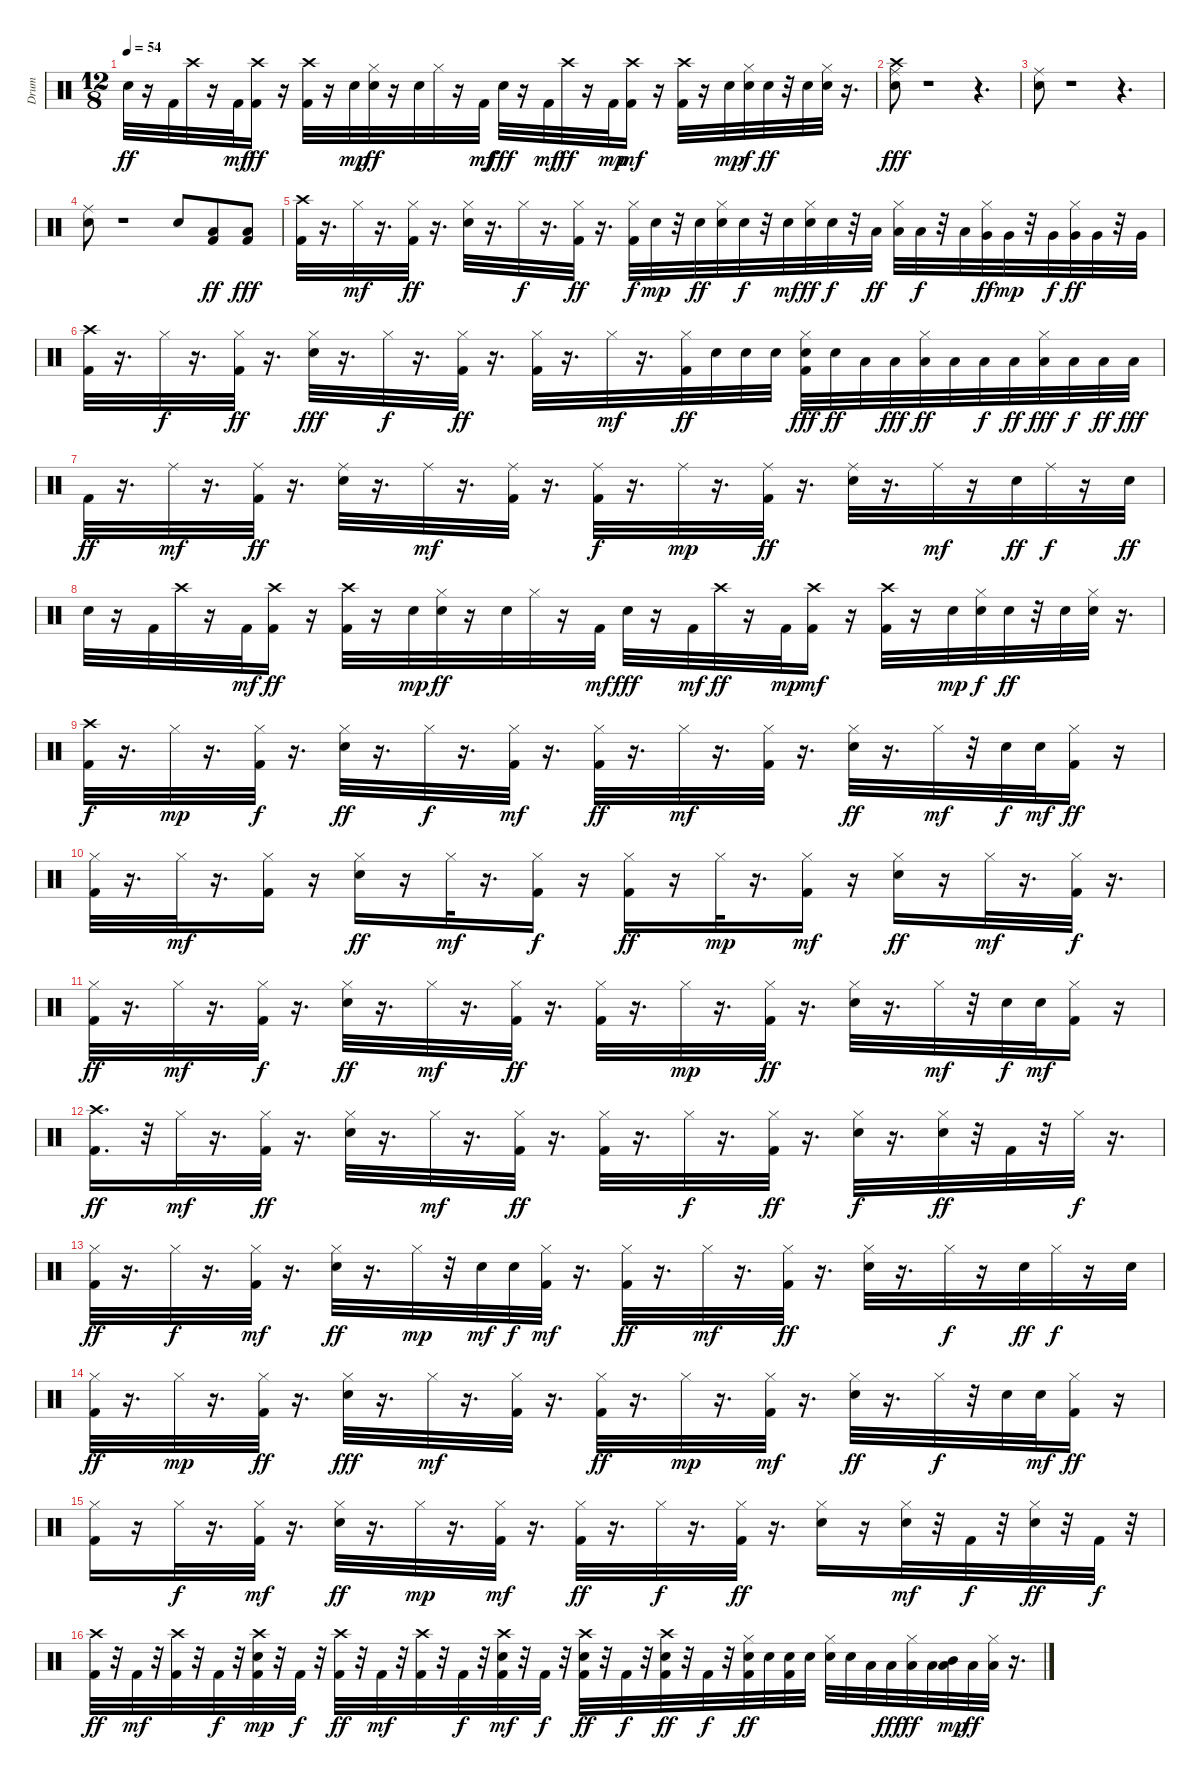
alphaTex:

\track ("Drum" "Drum") {instrument percussion}
\staff {score}
\articulation defaults
\ts (12 8)
\tempo 54
\clef neutral
\ks c "Electric Snare (hit)".32{dy ff}
r.16 "Kick (hit) 2".32 "Crash high (hit)".32 r.16 "Kick (hit) 2".32{dy mf} ("Kick (hit) 2" "Crash high (hit)").16{dy ff} r.16 ("Kick (hit) 2" "Crash high (hit)").32 r.16 "Electric Snare (hit)".32{dy mp} ("Electric Snare (hit)" "Hi-Hat (closed)").32{dy ff} r.16 "Electric Snare (hit)".32 "Hi-Hat (closed)".32 r.16 "Kick (hit) 2".32{dy mf} "Electric Snare (hit)".32{dy fff} r.16 "Kick (hit) 2".32{dy mf} "Crash high (hit)".32{dy ff} r.16 "Kick (hit) 2".32{dy mp} ("Kick (hit) 2" "Crash high (hit)").16{dy mf} r.16 ("Kick (hit) 2" "Crash high (hit)").32 r.16 "Electric Snare (hit)".32{dy mp} ("Electric Snare (hit)" "Hi-Hat (closed)").32{dy f} "Electric Snare (hit)".32{dy ff} r.32 "Electric Snare (hit)".32 ("Electric Snare (hit)" "Hi-Hat (closed)").32 r.16{d} |
("Crash high (hit)" "Electric Snare (hit)" "Ride (middle)").8{dy fff} r.1 r.4{d} |
("Electric Snare (hit)" "Ride (middle)").8 r.1 r.4{d} |
("Electric Snare (hit)" "Ride (middle)").8 r.1 "Electric Snare (hit)".8 ("Low Floor Tom (hit)" "Kick (hit) 2").8{dy ff} ("Low Floor Tom (hit)" "Kick (hit) 2").8{dy fff} |
("Kick (hit) 2" "Crash high (hit)").32 r.16{d} "Hi-Hat (closed)".32{dy mf} r.16{d} ("Kick (hit) 2" "Hi-Hat (closed)").32{dy ff} r.16{d} ("Electric Snare (hit)" "Hi-Hat (closed)").32 r.16{d} "Hi-Hat (closed)".32{dy f} r.16{d} ("Hi-Hat (closed)" "Kick (hit) 2").32{dy ff} r.16{d} ("Hi-Hat (closed)" "Kick (hit) 2").32{dy f} "Electric Snare (hit)".32{dy mp} r.32 "Electric Snare (hit)".32{dy ff} ("Hi-Hat (closed)" "Electric Snare (hit)").32 "Electric Snare (hit)".32{dy f} r.32 "Electric Snare (hit)".32{dy mf} ("Hi-Hat (closed)" "Electric Snare (hit)").32{dy ff} "Electric Snare (hit)".32{dy f} r.32 "Low Tom (hit)".32{dy ff} ("Low Tom (hit)" "Hi-Hat (closed)").32 "Low Tom (hit)".32{dy f} r.32 "Low Tom (hit)".32 ("Very Low Tom (hit)" "Hi-Hat (closed)").32{dy ff} "Very Low Tom (hit)".32{dy mp} r.32 "Very Low Tom (hit)".32{dy f} ("Very Low Tom (hit)" "Hi-Hat (closed)").32{dy ff} "Very Low Tom (hit)".32 r.32 "Very Low Tom (hit)".32 |
("Crash high (hit)" "Kick (hit) 2").32 r.16{d} "Hi-Hat (closed)".32{dy f} r.16{d} ("Kick (hit) 2" "Hi-Hat (closed)").32{dy ff} r.16{d} ("Hi-Hat (closed)" "Electric Snare (hit)").32{dy fff} r.16{d} "Hi-Hat (closed)".32{dy f} r.16{d} ("Kick (hit) 2" "Hi-Hat (closed)").32{dy ff} r.16{d} ("Kick (hit) 2" "Hi-Hat (closed)").32 r.16{d} "Hi-Hat (closed)".32{dy mf} r.16{d} ("Kick (hit) 2" "Hi-Hat (closed)").32{dy ff} "Electric Snare (hit)".32 "Electric Snare (hit)".32 "Electric Snare (hit)".32 ("Electric Snare (hit)" "Hi-Hat (closed)" "Kick (hit) 2").32{dy fff} "Electric Snare (hit)".32{dy ff} "Low Tom (hit)".32 "Low Tom (hit)".32{dy fff} ("Low Tom (hit)" "Hi-Hat (closed)").32{dy ff} "Low Tom (hit)".32 "Low Tom (hit)".32{dy f} "Low Tom (hit)".32{dy ff} ("Low Tom (hit)" "Hi-Hat (closed)").32{dy fff} "Low Tom (hit)".32{dy f} "Low Tom (hit)".32{dy ff} "Low Tom (hit)".32{dy fff} |
"Kick (hit) 2".32{dy ff} r.16{d} "Ride (middle)".32{dy mf} r.16{d} ("Ride (middle)" "Kick (hit) 2").32{dy ff} r.16{d} ("Ride (middle)" "Electric Snare (hit)").32 r.16{d} "Ride (middle)".32{dy mf} r.16{d} ("Ride (middle)" "Kick (hit) 2").32 r.16{d} ("Ride (middle)" "Kick (hit) 2").32{dy f} r.16{d} "Ride (middle)".32{dy mp} r.16{d} ("Ride (middle)" "Kick (hit) 2").32{dy ff} r.16{d} ("Electric Snare (hit)" "Ride (middle)").32 r.16{d} "Ride (middle)".32{dy mf} r.16 "Electric Snare (hit)".32{dy ff} "Ride (middle)".32{dy f} r.16 "Electric Snare (hit)".32{dy ff} |
"Electric Snare (hit)".32 r.16 "Kick (hit) 2".32 "Crash high (hit)".32 r.16 "Kick (hit) 2".32{dy mf} ("Kick (hit) 2" "Crash high (hit)").16{dy ff} r.16 ("Kick (hit) 2" "Crash high (hit)").32 r.16 "Electric Snare (hit)".32{dy mp} ("Electric Snare (hit)" "Hi-Hat (closed)").32{dy ff} r.16 "Electric Snare (hit)".32 "Hi-Hat (closed)".32 r.16 "Kick (hit) 2".32{dy mf} "Electric Snare (hit)".32{dy fff} r.16 "Kick (hit) 2".32{dy mf} "Crash high (hit)".32{dy ff} r.16 "Kick (hit) 2".32{dy mp} ("Kick (hit) 2" "Crash high (hit)").16{dy mf} r.16 ("Kick (hit) 2" "Crash high (hit)").32 r.16 "Electric Snare (hit)".32{dy mp} ("Electric Snare (hit)" "Hi-Hat (closed)").32{dy f} "Electric Snare (hit)".32{dy ff} r.32 "Electric Snare (hit)".32 ("Electric Snare (hit)" "Hi-Hat (closed)").32 r.16{d} |
("Crash high (hit)" "Kick (hit) 2").32{dy f} r.16{d} "Hi-Hat (closed)".32{dy mp} r.16{d} ("Kick (hit) 2" "Hi-Hat (closed)").32{dy f} r.16{d} ("Electric Snare (hit)" "Hi-Hat (closed)").32{dy ff} r.16{d} "Hi-Hat (closed)".32{dy f} r.16{d} ("Kick (hit) 2" "Hi-Hat (closed)").32{dy mf} r.16{d} ("Kick (hit) 2" "Hi-Hat (closed)").32{dy ff} r.16{d} "Hi-Hat (closed)".32{dy mf} r.16{d} ("Kick (hit) 2" "Hi-Hat (closed)").32 r.16{d} ("Electric Snare (hit)" "Hi-Hat (closed)").32{dy ff} r.16{d} "Hi-Hat (closed)".32{dy mf} r.32 "Electric Snare (hit)".32{dy f} "Electric Snare (hit)".32{dy mf} ("Kick (hit) 2" "Hi-Hat (closed)").16{dy ff} r.16 |
("Kick (hit) 2" "Hi-Hat (closed)").32 r.16{d} "Hi-Hat (closed)".32{dy mf} r.16{d} ("Kick (hit) 2" "Hi-Hat (closed)").16 r.16 ("Electric Snare (hit)" "Hi-Hat (closed)").16{dy ff} r.16 "Hi-Hat (closed)".32{dy mf} r.16{d} ("Kick (hit) 2" "Hi-Hat (closed)").16{dy f} r.16 ("Kick (hit) 2" "Hi-Hat (closed)").16{dy ff} r.16 "Hi-Hat (closed)".32{dy mp} r.16{d} ("Kick (hit) 2" "Hi-Hat (closed)").16{dy mf} r.16 ("Electric Snare (hit)" "Hi-Hat (closed)").16{dy ff} r.16 "Hi-Hat (closed)".32{dy mf} r.16{d} ("Kick (hit) 2" "Hi-Hat (closed)").32{dy f} r.16{d} |
("Kick (hit) 2" "Hi-Hat (closed)").32{dy ff} r.16{d} "Hi-Hat (closed)".32{dy mf} r.16{d} ("Kick (hit) 2" "Hi-Hat (closed)").32{dy f} r.16{d} ("Electric Snare (hit)" "Hi-Hat (closed)").32{dy ff} r.16{d} "Hi-Hat (closed)".32{dy mf} r.16{d} ("Kick (hit) 2" "Hi-Hat (closed)").32{dy ff} r.16{d} ("Kick (hit) 2" "Hi-Hat (closed)").32 r.16{d} "Hi-Hat (closed)".32{dy mp} r.16{d} ("Kick (hit) 2" "Hi-Hat (closed)").32{dy ff} r.16{d} ("Electric Snare (hit)" "Hi-Hat (closed)").32 r.16{d} "Hi-Hat (closed)".32{dy mf} r.32 "Electric Snare (hit)".32{dy f} "Electric Snare (hit)".32{dy mf} ("Kick (hit) 2" "Hi-Hat (closed)").16 r.16 |
("Kick (hit) 2" "Crash high (hit)").16{d dy ff} r.32 "Hi-Hat (closed)".32{dy mf} r.16{d} ("Kick (hit) 2" "Hi-Hat (closed)").32{dy ff} r.16{d} ("Hi-Hat (closed)" "Electric Snare (hit)").32 r.16{d} "Hi-Hat (closed)".32{dy mf} r.16{d} ("Hi-Hat (closed)" "Kick (hit) 2").32{dy ff} r.16{d} ("Kick (hit) 2" "Hi-Hat (closed)").32 r.16{d} "Hi-Hat (closed)".32{dy f} r.16{d} ("Hi-Hat (closed)" "Kick (hit) 2").32{dy ff} r.16{d} ("Hi-Hat (closed)" "Electric Snare (hit)").32{dy f} r.16{d} ("Electric Snare (hit)" "Hi-Hat (closed)").32{dy ff} r.32 "Kick (hit) 2".32 r.32 "Hi-Hat (closed)".32{dy f} r.16{d} |
("Hi-Hat (closed)" "Kick (hit) 2").32{dy ff} r.16{d} "Hi-Hat (closed)".32{dy f} r.16{d} ("Kick (hit) 2" "Hi-Hat (closed)").32{dy mf} r.16{d} ("Electric Snare (hit)" "Hi-Hat (closed)").32{dy ff} r.16{d} "Hi-Hat (closed)".32{dy mp} r.32 "Electric Snare (hit)".32{dy mf} "Electric Snare (hit)".32{dy f} ("Kick (hit) 2" "Hi-Hat (closed)").32{dy mf} r.16{d} ("Kick (hit) 2" "Hi-Hat (closed)").32{dy ff} r.16{d} "Hi-Hat (closed)".32{dy mf} r.16{d} ("Kick (hit) 2" "Hi-Hat (closed)").32{dy ff} r.16{d} ("Electric Snare (hit)" "Hi-Hat (closed)").32 r.16{d} "Hi-Hat (closed)".32{dy f} r.16 "Electric Snare (hit)".32{dy ff} "Hi-Hat (closed)".32{dy f} r.16 "Electric Snare (hit)".32 |
("Kick (hit) 2" "Hi-Hat (closed)").32{dy ff} r.16{d} "Hi-Hat (closed)".32{dy mp} r.16{d} ("Kick (hit) 2" "Hi-Hat (closed)").32{dy ff} r.16{d} ("Electric Snare (hit)" "Hi-Hat (closed)").32{dy fff} r.16{d} "Hi-Hat (closed)".32{dy mf} r.16{d} ("Kick (hit) 2" "Hi-Hat (closed)").32 r.16{d} ("Kick (hit) 2" "Hi-Hat (closed)").32{dy ff} r.16{d} "Hi-Hat (closed)".32{dy mp} r.16{d} ("Kick (hit) 2" "Hi-Hat (closed)").32{dy mf} r.16{d} ("Electric Snare (hit)" "Hi-Hat (closed)").32{dy ff} r.16{d} "Hi-Hat (closed)".32{dy f} r.32 "Electric Snare (hit)".32 "Electric Snare (hit)".32{dy mf} ("Kick (hit) 2" "Hi-Hat (closed)").16{dy ff} r.16 |
("Kick (hit) 2" "Hi-Hat (closed)").16 r.16 "Hi-Hat (closed)".32{dy f} r.16{d} ("Kick (hit) 2" "Hi-Hat (closed)").32{dy mf} r.16{d} ("Electric Snare (hit)" "Hi-Hat (closed)").32{dy ff} r.16{d} "Hi-Hat (closed)".32{dy mp} r.16{d} ("Kick (hit) 2" "Hi-Hat (closed)").32{dy mf} r.16{d} ("Kick (hit) 2" "Hi-Hat (closed)").32{dy ff} r.16{d} "Hi-Hat (closed)".32{dy f} r.16{d} ("Kick (hit) 2" "Hi-Hat (closed)").32{dy ff} r.16{d} ("Electric Snare (hit)" "Hi-Hat (closed)").16 r.16 ("Electric Snare (hit)" "Hi-Hat (closed)").32{dy mf} r.32 "Kick (hit) 2".32{dy f} r.32 ("Electric Snare (hit)" "Hi-Hat (closed)").32{dy ff} r.32 "Kick (hit) 2".32{dy f} r.32 |
("Kick (hit) 2" "Crash high (hit)").32{dy ff} r.32 "Kick (hit) 2".32{dy mf} r.32 ("Kick (hit) 2" "Crash high (hit)").32 r.32 "Kick (hit) 2".32{dy f} r.32 ("Electric Snare (hit)" "Kick (hit) 2" "Crash high (hit)").32{dy mp} r.32 "Kick (hit) 2".32{dy f} r.32 ("Crash high (hit)" "Kick (hit) 2").32{dy ff} r.32 "Kick (hit) 2".32{dy mf} r.32 ("Kick (hit) 2" "Crash high (hit)").32 r.32 "Kick (hit) 2".32{dy f} r.32 ("Electric Snare (hit)" "Kick (hit) 2" "Crash high (hit)").32{dy mf} r.32 "Kick (hit) 2".32{dy f} r.32 ("Kick (hit) 2" "Electric Snare (hit)" "Crash high (hit)").32{dy ff} r.32 "Kick (hit) 2".32{dy f} r.32 ("Kick (hit) 2" "Electric Snare (hit)" "Crash high (hit)").32{dy ff} r.32 "Kick (hit) 2".32{dy f} r.32 ("Kick (hit) 2" "Electric Snare (hit)" "Hi-Hat (closed)").32{dy ff} "Electric Snare (hit)".32 ("Kick (hit) 2" "Electric Snare (hit)").32 "Electric Snare (hit)".32 ("Electric Snare (hit)" "Hi-Hat (closed)").32 "Electric Snare (hit)".32 "Low Tom (hit)".32 "Low Tom (hit)".32{dy fff} ("Low Tom (hit)" "Hi-Hat (closed)").32{dy ff} "Low Tom (hit)".32 ("Low Tom (hit)" "Mid Tom (hit)").32{dy mp} "Low Tom (hit)".32{dy ff} ("Low Tom (hit)" "Hi-Hat (closed)").32 r.16{d}
